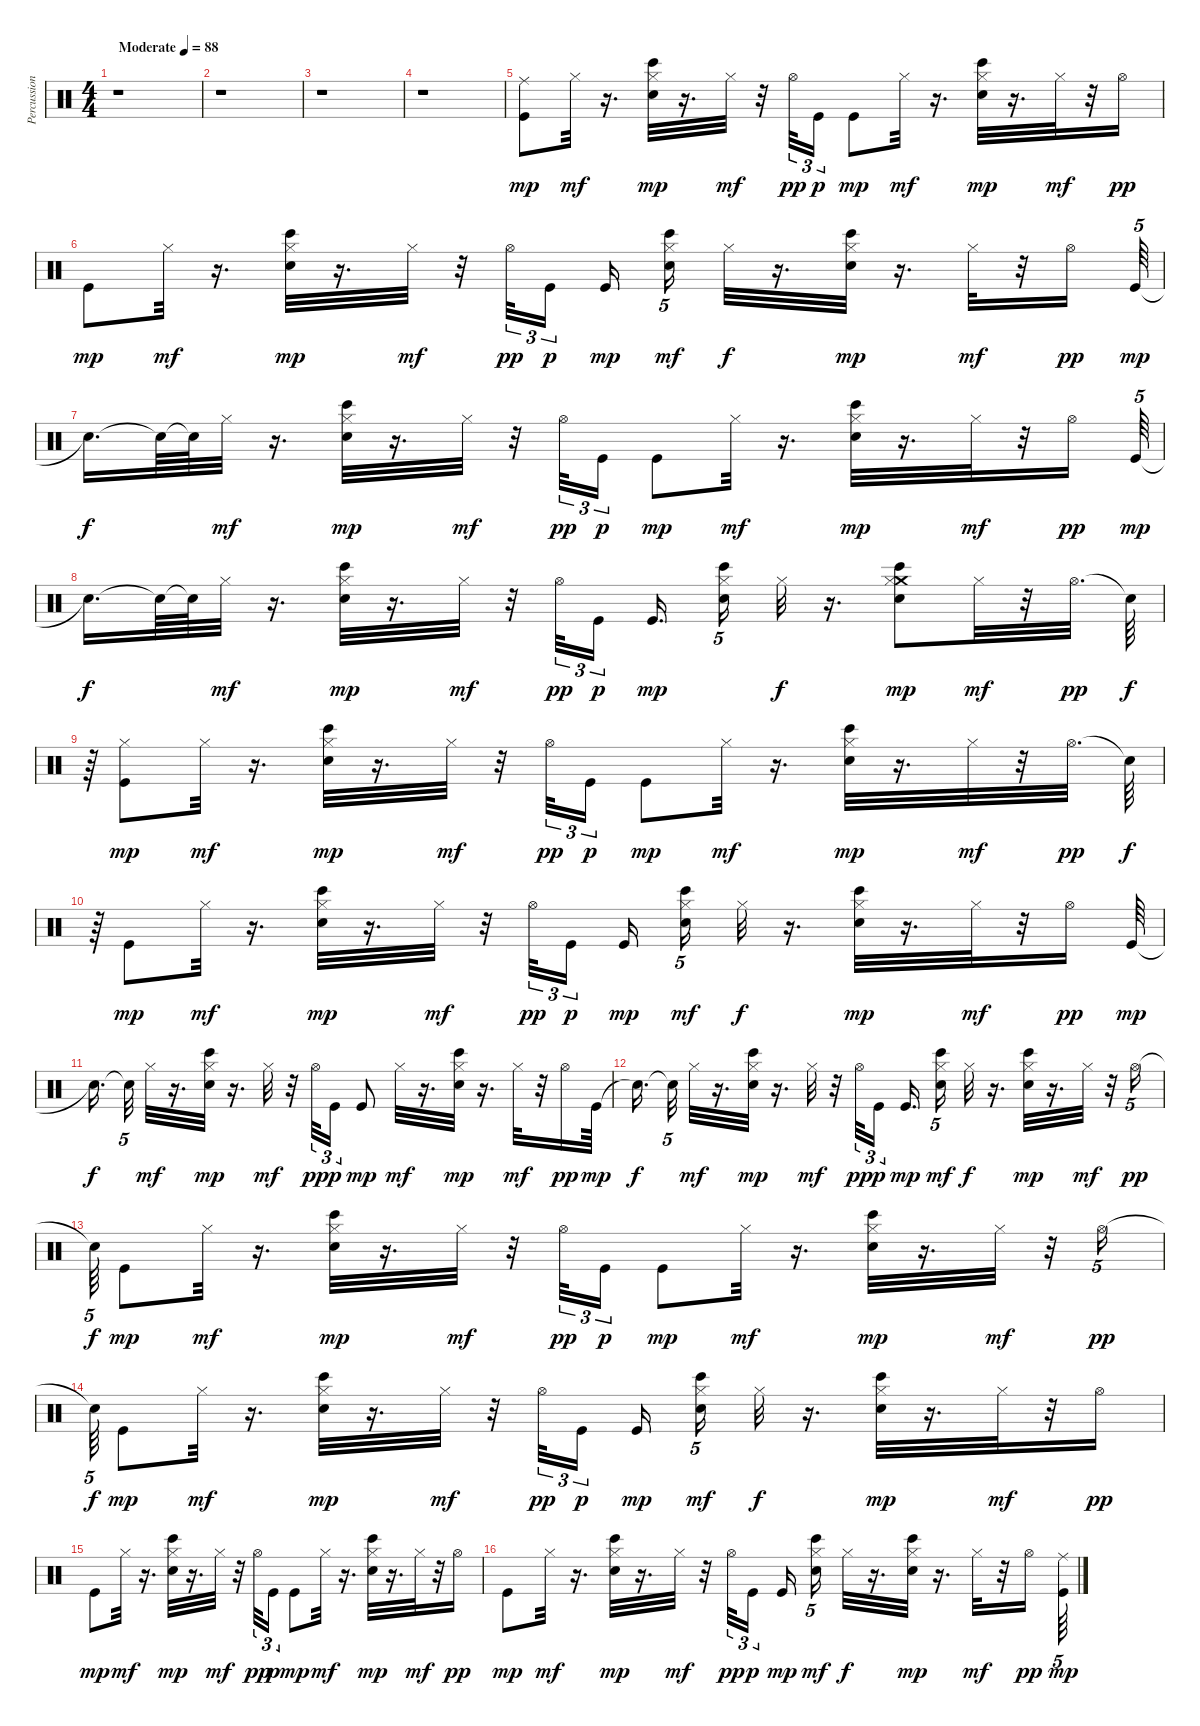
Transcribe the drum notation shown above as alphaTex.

\track ("Percussion" "Percussion") {instrument percussion}
\staff {score}
\articulation defaults
\ts (4 4)
\tempo (88 "Moderate")
\clef neutral
\ks c
r.1{dy mp} |
r.1 |
r.1 |
r.1 |
("Ride (middle)" "Kick (hit)").8 "Hi-Hat (closed)".32{dy mf} r.16{d} ("Bongo High (hit)" "Hi-Hat (closed)" "Electric Snare (hit)").32{dy mp} r.16{d} "Hi-Hat (closed)".32{dy mf} r.32 "Hi-Hat (open)".32{tu (3 2) dy pp} "Kick (hit)".16{tu (3 2) dy p} "Kick (hit)".8{dy mp} "Hi-Hat (closed)".32{dy mf} r.16{d} ("Bongo High (hit)" "Hi-Hat (closed)" "Electric Snare (hit)").32{dy mp} r.16{d} "Hi-Hat (closed)".32{dy mf} r.32 "Hi-Hat (open)".16{dy pp} |
"Kick (hit)".8{dy mp} "Hi-Hat (closed)".32{dy mf} r.16{d} ("Bongo High (hit)" "Hi-Hat (closed)" "Electric Snare (hit)").32{dy mp} r.16{d} "Hi-Hat (closed)".32{dy mf} r.32 "Hi-Hat (open)".32{tu (3 2) dy pp} "Kick (hit)".16{tu (3 2) dy p} "Kick (hit)".16{dy mp} ("Bongo High (hit)" "Electric Snare (hit)" "Hi-Hat (closed)").16{tu (5 4) dy mf} "Hi-Hat (closed)".32{dy f} r.16{d} ("Bongo High (hit)" "Hi-Hat (closed)" "Electric Snare (hit)").32{dy mp} r.16{d} "Hi-Hat (closed)".32{dy mf} r.32 "Hi-Hat (open)".16{dy pp} "Kick (hit)".64{tu (5 4) dy mp} |
"Snare (hit)"{t}.16{d dy f} "Snare (hit)"{t}.64 "Snare (hit)"{t}.64 "Hi-Hat (closed)".32{dy mf} r.16{d} ("Bongo High (hit)" "Hi-Hat (closed)" "Electric Snare (hit)").32{dy mp} r.16{d} "Hi-Hat (closed)".32{dy mf} r.32 "Hi-Hat (open)".32{tu (3 2) dy pp} "Kick (hit)".16{tu (3 2) dy p} "Kick (hit)".8{dy mp} "Hi-Hat (closed)".32{dy mf} r.16{d} ("Bongo High (hit)" "Hi-Hat (closed)" "Electric Snare (hit)").32{dy mp} r.16{d} "Hi-Hat (closed)".32{dy mf} r.32 "Hi-Hat (open)".16{dy pp} "Kick (hit)".64{tu (5 4) dy mp} |
"Snare (hit)"{t}.16{d dy f} "Snare (hit)"{t}.64 "Snare (hit)"{t}.64 "Hi-Hat (closed)".32{dy mf} r.16{d} ("Bongo High (hit)" "Hi-Hat (closed)" "Electric Snare (hit)").32{dy mp} r.16{d} "Hi-Hat (closed)".32{dy mf} r.32 "Hi-Hat (open)".32{tu (3 2) dy pp} "Kick (hit)".16{tu (3 2) dy p} "Kick (hit)".16{d dy mp} ("Hi-Hat (closed)" "Bongo High (hit)" "Electric Snare (hit)").16{tu (5 4)} "Hi-Hat (closed)".32{dy f} r.16{d} ("Crash medium (hit)" "Bongo High (hit)" "Hi-Hat (closed)" "Electric Snare (hit)").8{dy mp} "Hi-Hat (closed)".32{dy mf} r.32 "Hi-Hat (open)".32{d dy pp} "Snare (hit)"{t}.64{dy f} |
r.64 ("Hi-Hat (closed)" "Kick (hit)").8{dy mp} "Hi-Hat (closed)".32{dy mf} r.16{d} ("Bongo High (hit)" "Hi-Hat (closed)" "Electric Snare (hit)").32{dy mp} r.16{d} "Hi-Hat (closed)".32{dy mf} r.32 "Hi-Hat (open)".32{tu (3 2) dy pp} "Kick (hit)".16{tu (3 2) dy p} "Kick (hit)".8{dy mp} "Hi-Hat (closed)".32{dy mf} r.16{d} ("Bongo High (hit)" "Hi-Hat (closed)" "Electric Snare (hit)").32{dy mp} r.16{d} "Hi-Hat (closed)".32{dy mf} r.32 "Hi-Hat (open)".32{d dy pp} "Snare (hit)"{t}.64{dy f} |
r.64 "Kick (hit)".8{dy mp} "Hi-Hat (closed)".32{dy mf} r.16{d} ("Bongo High (hit)" "Hi-Hat (closed)" "Electric Snare (hit)").32{dy mp} r.16{d} "Hi-Hat (closed)".32{dy mf} r.32 "Hi-Hat (open)".32{tu (3 2) dy pp} "Kick (hit)".16{tu (3 2) dy p} "Kick (hit)".16{dy mp} ("Bongo High (hit)" "Electric Snare (hit)" "Hi-Hat (closed)").16{tu (5 4) dy mf} "Hi-Hat (closed)".32{dy f} r.16{d} ("Bongo High (hit)" "Hi-Hat (closed)" "Electric Snare (hit)").32{dy mp} r.16{d} "Hi-Hat (closed)".32{dy mf} r.32 "Hi-Hat (open)".16{dy pp} "Kick (hit)".64{dy mp} |
"Snare (hit)"{t}.16{d dy f} "Snare (hit)"{t}.32{tu (5 4)} "Hi-Hat (closed)".32{dy mf} r.16{d} ("Bongo High (hit)" "Hi-Hat (closed)" "Electric Snare (hit)").32{dy mp} r.16{d} "Hi-Hat (closed)".32{dy mf} r.32 "Hi-Hat (open)".32{tu (3 2) dy pp} "Kick (hit)".16{tu (3 2) dy p} "Kick (hit)".8{dy mp} "Hi-Hat (closed)".32{dy mf} r.16{d} ("Bongo High (hit)" "Hi-Hat (closed)" "Electric Snare (hit)").32{dy mp} r.16{d} "Hi-Hat (closed)".32{dy mf} r.32 "Hi-Hat (open)".16{dy pp} "Kick (hit)".64{dy mp} |
"Snare (hit)"{t}.16{d dy f} "Snare (hit)"{t}.32{tu (5 4)} "Hi-Hat (closed)".32{dy mf} r.16{d} ("Bongo High (hit)" "Hi-Hat (closed)" "Electric Snare (hit)").32{dy mp} r.16{d} "Hi-Hat (closed)".32{dy mf} r.32 "Hi-Hat (open)".32{tu (3 2) dy pp} "Kick (hit)".16{tu (3 2) dy p} "Kick (hit)".16{d dy mp} ("Bongo High (hit)" "Electric Snare (hit)" "Hi-Hat (closed)").16{tu (5 4) dy mf} "Hi-Hat (closed)".32{dy f} r.16{d} ("Bongo High (hit)" "Hi-Hat (closed)" "Electric Snare (hit)").32{dy mp} r.16{d} "Hi-Hat (closed)".32{dy mf} r.32 "Hi-Hat (open)".16{tu (5 4) dy pp} |
"Snare (hit)"{t}.64{tu (5 4) dy f} "Kick (hit)".8{dy mp} "Hi-Hat (closed)".32{dy mf} r.16{d} ("Bongo High (hit)" "Hi-Hat (closed)" "Electric Snare (hit)").32{dy mp} r.16{d} "Hi-Hat (closed)".32{dy mf} r.32 "Hi-Hat (open)".32{tu (3 2) dy pp} "Kick (hit)".16{tu (3 2) dy p} "Kick (hit)".8{dy mp} "Hi-Hat (closed)".32{dy mf} r.16{d} ("Bongo High (hit)" "Hi-Hat (closed)" "Electric Snare (hit)").32{dy mp} r.16{d} "Hi-Hat (closed)".32{dy mf} r.32 "Hi-Hat (open)".16{tu (5 4) dy pp} |
"Snare (hit)"{t}.64{tu (5 4) dy f} "Kick (hit)".8{dy mp} "Hi-Hat (closed)".32{dy mf} r.16{d} ("Bongo High (hit)" "Hi-Hat (closed)" "Electric Snare (hit)").32{dy mp} r.16{d} "Hi-Hat (closed)".32{dy mf} r.32 "Hi-Hat (open)".32{tu (3 2) dy pp} "Kick (hit)".16{tu (3 2) dy p} "Kick (hit)".16{dy mp} ("Bongo High (hit)" "Electric Snare (hit)" "Hi-Hat (closed)").16{tu (5 4) dy mf} "Hi-Hat (closed)".32{dy f} r.16{d} ("Bongo High (hit)" "Hi-Hat (closed)" "Electric Snare (hit)").32{dy mp} r.16{d} "Hi-Hat (closed)".32{dy mf} r.32 "Hi-Hat (open)".16{dy pp} |
"Kick (hit)".8{dy mp} "Hi-Hat (closed)".32{dy mf} r.16{d} ("Bongo High (hit)" "Hi-Hat (closed)" "Electric Snare (hit)").32{dy mp} r.16{d} "Hi-Hat (closed)".32{dy mf} r.32 "Hi-Hat (open)".32{tu (3 2) dy pp} "Kick (hit)".16{tu (3 2) dy p} "Kick (hit)".8{dy mp} "Hi-Hat (closed)".32{dy mf} r.16{d} ("Bongo High (hit)" "Hi-Hat (closed)" "Electric Snare (hit)").32{dy mp} r.16{d} "Hi-Hat (closed)".32{dy mf} r.32 "Hi-Hat (open)".16{dy pp} |
"Kick (hit)".8{dy mp} "Hi-Hat (closed)".32{dy mf} r.16{d} ("Bongo High (hit)" "Hi-Hat (closed)" "Electric Snare (hit)").32{dy mp} r.16{d} "Hi-Hat (closed)".32{dy mf} r.32 "Hi-Hat (open)".32{tu (3 2) dy pp} "Kick (hit)".16{tu (3 2) dy p} "Kick (hit)".16{dy mp} ("Bongo High (hit)" "Electric Snare (hit)" "Hi-Hat (closed)").16{tu (5 4) dy mf} "Hi-Hat (closed)".32{dy f} r.16{d} ("Bongo High (hit)" "Hi-Hat (closed)" "Electric Snare (hit)").32{dy mp} r.16{d} "Hi-Hat (closed)".32{dy mf} r.32 "Hi-Hat (open)".16{dy pp} ("Ride (middle)" "Kick (hit)").64{tu (5 4) dy mp}
